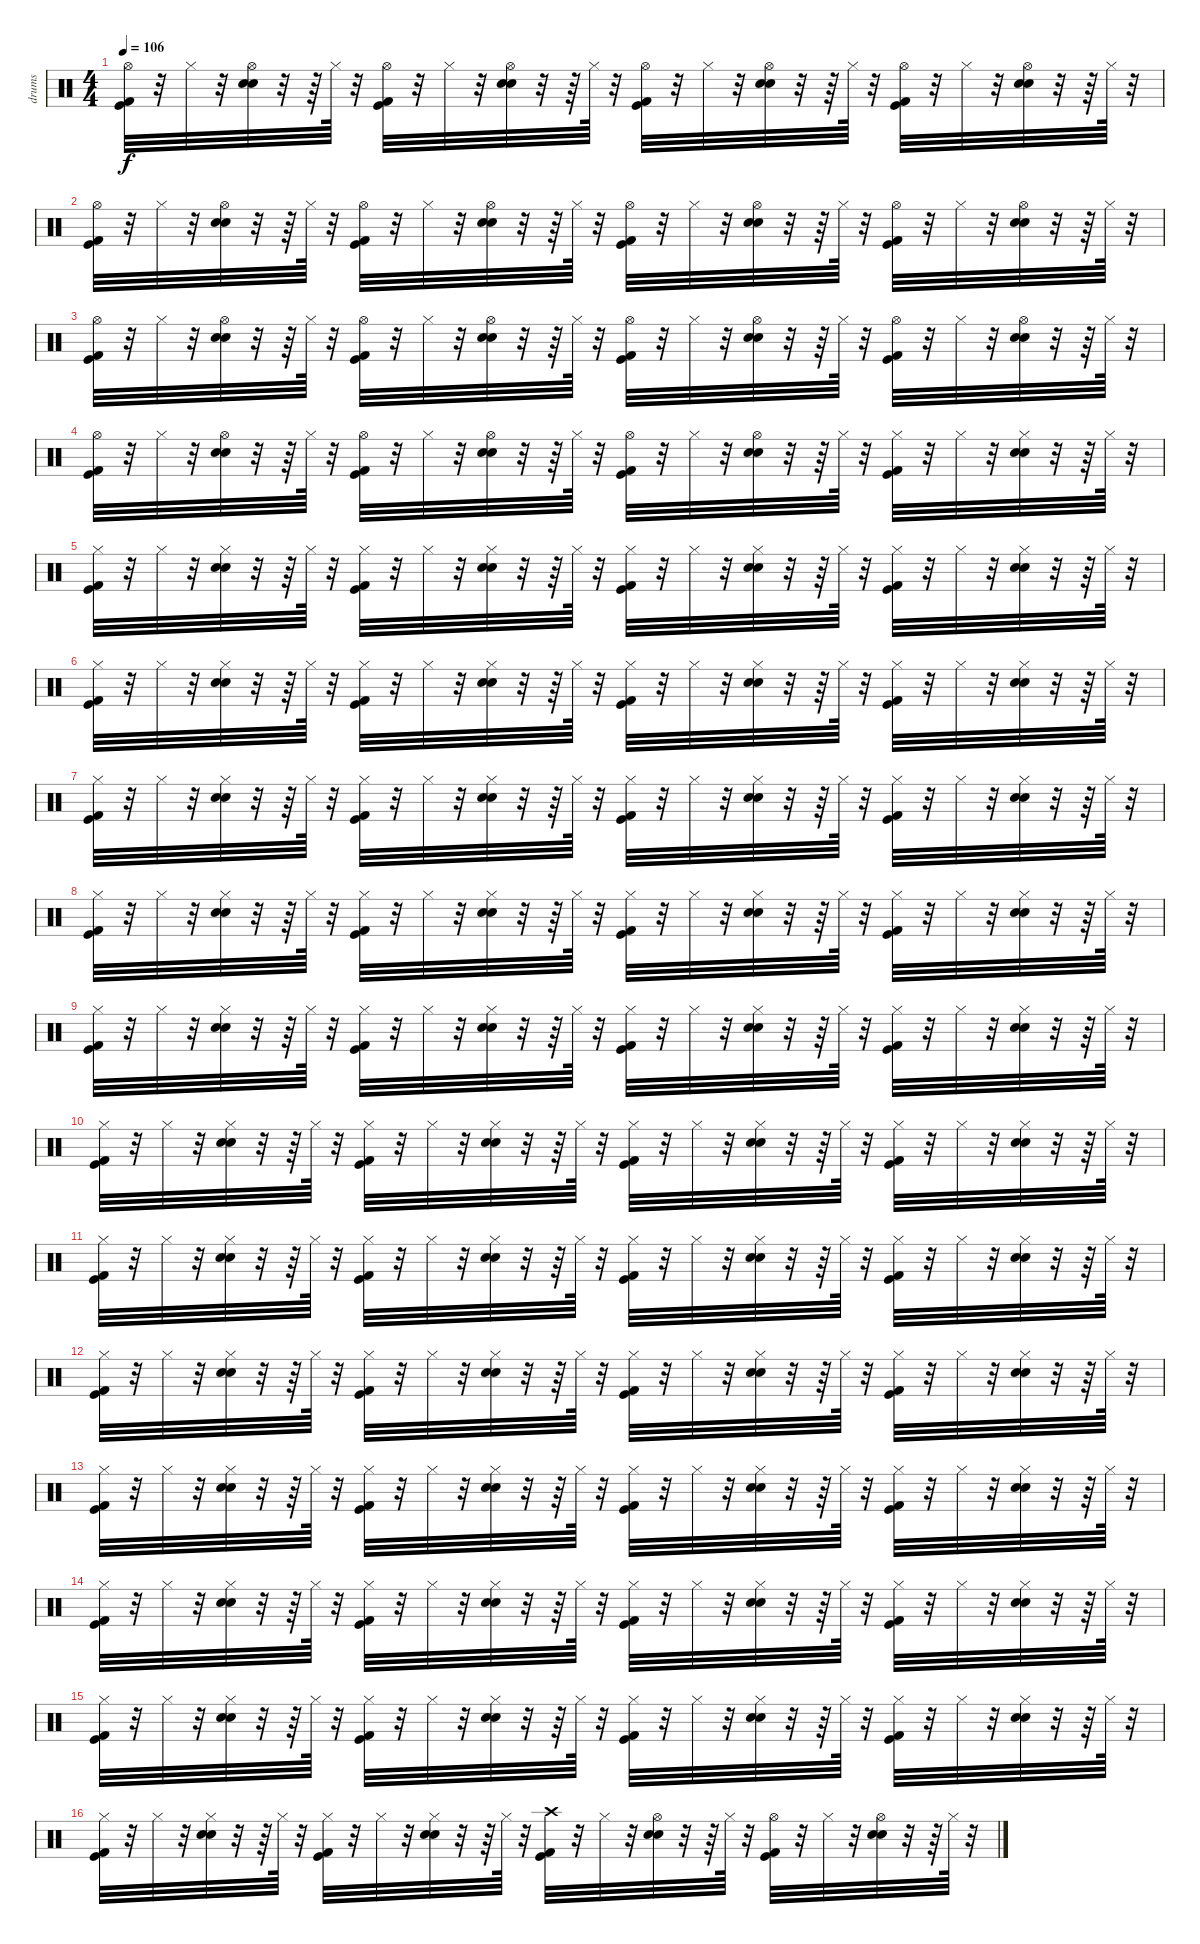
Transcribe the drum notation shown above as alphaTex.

\track ("drums" "drums") {instrument percussion}
\staff {score}
\articulation defaults
\ts (4 4)
\tempo 106
\clef neutral
\ks c
("Kick (hit) 2" "Kick (hit)" "Hi-Hat (open)").32{dy f} r.32 "Hi-Hat (closed)".32 r.32 ("Electric Snare (hit)" "Snare (hit) 2" "Hi-Hat (open)").32 r.32 r.64 "Hi-Hat (closed)".64 r.32 ("Kick (hit) 2" "Kick (hit)" "Hi-Hat (open)").32 r.32 "Hi-Hat (closed)".32 r.32 ("Electric Snare (hit)" "Snare (hit) 2" "Hi-Hat (open)").32 r.32 r.64 "Hi-Hat (closed)".64 r.32 ("Kick (hit) 2" "Kick (hit)" "Hi-Hat (open)").32 r.32 "Hi-Hat (closed)".32 r.32 ("Electric Snare (hit)" "Snare (hit) 2" "Hi-Hat (open)").32 r.32 r.64 "Hi-Hat (closed)".64 r.32 ("Hi-Hat (open)" "Kick (hit)" "Kick (hit) 2").32 r.32 "Hi-Hat (closed)".32 r.32 ("Electric Snare (hit)" "Snare (hit) 2" "Hi-Hat (open)").32 r.32 r.64 "Hi-Hat (closed)".64 r.32 |
("Kick (hit) 2" "Kick (hit)" "Hi-Hat (open)").32 r.32 "Hi-Hat (closed)".32 r.32 ("Electric Snare (hit)" "Snare (hit) 2" "Hi-Hat (open)").32 r.32 r.64 "Hi-Hat (closed)".64 r.32 ("Kick (hit) 2" "Kick (hit)" "Hi-Hat (open)").32 r.32 "Hi-Hat (closed)".32 r.32 ("Electric Snare (hit)" "Snare (hit) 2" "Hi-Hat (open)").32 r.32 r.64 "Hi-Hat (closed)".64 r.32 ("Kick (hit) 2" "Kick (hit)" "Hi-Hat (open)").32 r.32 "Hi-Hat (closed)".32 r.32 ("Electric Snare (hit)" "Snare (hit) 2" "Hi-Hat (open)").32 r.32 r.64 "Hi-Hat (closed)".64 r.32 ("Hi-Hat (open)" "Kick (hit)" "Kick (hit) 2").32 r.32 "Hi-Hat (closed)".32 r.32 ("Electric Snare (hit)" "Snare (hit) 2" "Hi-Hat (open)").32 r.32 r.64 "Hi-Hat (closed)".64 r.32 |
("Kick (hit) 2" "Kick (hit)" "Hi-Hat (open)").32 r.32 "Hi-Hat (closed)".32 r.32 ("Electric Snare (hit)" "Snare (hit) 2" "Hi-Hat (open)").32 r.32 r.64 "Hi-Hat (closed)".64 r.32 ("Kick (hit) 2" "Kick (hit)" "Hi-Hat (open)").32 r.32 "Hi-Hat (closed)".32 r.32 ("Electric Snare (hit)" "Snare (hit) 2" "Hi-Hat (open)").32 r.32 r.64 "Hi-Hat (closed)".64 r.32 ("Kick (hit) 2" "Kick (hit)" "Hi-Hat (open)").32 r.32 "Hi-Hat (closed)".32 r.32 ("Electric Snare (hit)" "Snare (hit) 2" "Hi-Hat (open)").32 r.32 r.64 "Hi-Hat (closed)".64 r.32 ("Hi-Hat (open)" "Kick (hit)" "Kick (hit) 2").32 r.32 "Hi-Hat (closed)".32 r.32 ("Electric Snare (hit)" "Snare (hit) 2" "Hi-Hat (open)").32 r.32 r.64 "Hi-Hat (closed)".64 r.32 |
("Kick (hit) 2" "Kick (hit)" "Hi-Hat (open)").32 r.32 "Hi-Hat (closed)".32 r.32 ("Electric Snare (hit)" "Snare (hit) 2" "Hi-Hat (open)").32 r.32 r.64 "Hi-Hat (closed)".64 r.32 ("Kick (hit) 2" "Kick (hit)" "Hi-Hat (open)").32 r.32 "Hi-Hat (closed)".32 r.32 ("Electric Snare (hit)" "Snare (hit) 2" "Hi-Hat (open)").32 r.32 r.64 "Hi-Hat (closed)".64 r.32 ("Kick (hit) 2" "Kick (hit)" "Hi-Hat (open)").32 r.32 "Hi-Hat (closed)".32 r.32 ("Electric Snare (hit)" "Snare (hit) 2" "Hi-Hat (open)").32 r.32 r.64 "Hi-Hat (closed)".64 r.32 ("Kick (hit) 2" "Kick (hit)" "Hi-Hat (closed)").32 r.32 "Hi-Hat (closed)".32 r.32 ("Electric Snare (hit)" "Snare (hit) 2" "Hi-Hat (closed)").32 r.32 r.64 "Hi-Hat (closed)".64 r.32 |
("Kick (hit) 2" "Kick (hit)" "Hi-Hat (closed)").32 r.32 "Hi-Hat (closed)".32 r.32 ("Electric Snare (hit)" "Snare (hit) 2" "Hi-Hat (closed)").32 r.32 r.64 "Hi-Hat (closed)".64 r.32 ("Kick (hit) 2" "Kick (hit)" "Hi-Hat (closed)").32 r.32 "Hi-Hat (closed)".32 r.32 ("Electric Snare (hit)" "Snare (hit) 2" "Hi-Hat (closed)").32 r.32 r.64 "Hi-Hat (closed)".64 r.32 ("Kick (hit) 2" "Kick (hit)" "Hi-Hat (closed)").32 r.32 "Hi-Hat (closed)".32 r.32 ("Electric Snare (hit)" "Snare (hit) 2" "Hi-Hat (closed)").32 r.32 r.64 "Hi-Hat (closed)".64 r.32 ("Kick (hit) 2" "Kick (hit)" "Hi-Hat (closed)").32 r.32 "Hi-Hat (closed)".32 r.32 ("Electric Snare (hit)" "Snare (hit) 2" "Hi-Hat (closed)").32 r.32 r.64 "Hi-Hat (closed)".64 r.32 |
("Kick (hit) 2" "Kick (hit)" "Hi-Hat (closed)").32 r.32 "Hi-Hat (closed)".32 r.32 ("Electric Snare (hit)" "Snare (hit) 2" "Hi-Hat (closed)").32 r.32 r.64 "Hi-Hat (closed)".64 r.32 ("Kick (hit) 2" "Kick (hit)" "Hi-Hat (closed)").32 r.32 "Hi-Hat (closed)".32 r.32 ("Electric Snare (hit)" "Snare (hit) 2" "Hi-Hat (closed)").32 r.32 r.64 "Hi-Hat (closed)".64 r.32 ("Kick (hit) 2" "Kick (hit)" "Hi-Hat (closed)").32 r.32 "Hi-Hat (closed)".32 r.32 ("Electric Snare (hit)" "Snare (hit) 2" "Hi-Hat (closed)").32 r.32 r.64 "Hi-Hat (closed)".64 r.32 ("Kick (hit) 2" "Kick (hit)" "Hi-Hat (closed)").32 r.32 "Hi-Hat (closed)".32 r.32 ("Electric Snare (hit)" "Snare (hit) 2" "Hi-Hat (closed)").32 r.32 r.64 "Hi-Hat (closed)".64 r.32 |
("Kick (hit) 2" "Kick (hit)" "Hi-Hat (closed)").32 r.32 "Hi-Hat (closed)".32 r.32 ("Electric Snare (hit)" "Snare (hit) 2" "Hi-Hat (closed)").32 r.32 r.64 "Hi-Hat (closed)".64 r.32 ("Kick (hit) 2" "Kick (hit)" "Hi-Hat (closed)").32 r.32 "Hi-Hat (closed)".32 r.32 ("Electric Snare (hit)" "Snare (hit) 2" "Hi-Hat (closed)").32 r.32 r.64 "Hi-Hat (closed)".64 r.32 ("Kick (hit) 2" "Kick (hit)" "Hi-Hat (closed)").32 r.32 "Hi-Hat (closed)".32 r.32 ("Electric Snare (hit)" "Snare (hit) 2" "Hi-Hat (closed)").32 r.32 r.64 "Hi-Hat (closed)".64 r.32 ("Kick (hit) 2" "Kick (hit)" "Hi-Hat (closed)").32 r.32 "Hi-Hat (closed)".32 r.32 ("Electric Snare (hit)" "Snare (hit) 2" "Hi-Hat (closed)").32 r.32 r.64 "Hi-Hat (closed)".64 r.32 |
("Kick (hit) 2" "Kick (hit)" "Hi-Hat (closed)").32 r.32 "Hi-Hat (closed)".32 r.32 ("Electric Snare (hit)" "Snare (hit) 2" "Hi-Hat (closed)").32 r.32 r.64 "Hi-Hat (closed)".64 r.32 ("Kick (hit) 2" "Kick (hit)" "Hi-Hat (closed)").32 r.32 "Hi-Hat (closed)".32 r.32 ("Electric Snare (hit)" "Snare (hit) 2" "Hi-Hat (closed)").32 r.32 r.64 "Hi-Hat (closed)".64 r.32 ("Kick (hit) 2" "Kick (hit)" "Hi-Hat (closed)").32 r.32 "Hi-Hat (closed)".32 r.32 ("Electric Snare (hit)" "Snare (hit) 2" "Hi-Hat (closed)").32 r.32 r.64 "Hi-Hat (closed)".64 r.32 ("Kick (hit) 2" "Kick (hit)" "Hi-Hat (closed)").32 r.32 "Hi-Hat (closed)".32 r.32 ("Electric Snare (hit)" "Snare (hit) 2" "Hi-Hat (closed)").32 r.32 r.64 "Hi-Hat (closed)".64 r.32 |
("Kick (hit) 2" "Kick (hit)" "Hi-Hat (closed)").32 r.32 "Hi-Hat (closed)".32 r.32 ("Electric Snare (hit)" "Snare (hit) 2" "Hi-Hat (closed)").32 r.32 r.64 "Hi-Hat (closed)".64 r.32 ("Kick (hit) 2" "Kick (hit)" "Hi-Hat (closed)").32 r.32 "Hi-Hat (closed)".32 r.32 ("Electric Snare (hit)" "Snare (hit) 2" "Hi-Hat (closed)").32 r.32 r.64 "Hi-Hat (closed)".64 r.32 ("Kick (hit) 2" "Kick (hit)" "Hi-Hat (closed)").32 r.32 "Hi-Hat (closed)".32 r.32 ("Electric Snare (hit)" "Snare (hit) 2" "Hi-Hat (closed)").32 r.32 r.64 "Hi-Hat (closed)".64 r.32 ("Kick (hit) 2" "Kick (hit)" "Hi-Hat (closed)").32 r.32 "Hi-Hat (closed)".32 r.32 ("Electric Snare (hit)" "Snare (hit) 2" "Hi-Hat (closed)").32 r.32 r.64 "Hi-Hat (closed)".64 r.32 |
("Kick (hit) 2" "Kick (hit)" "Hi-Hat (closed)").32 r.32 "Hi-Hat (closed)".32 r.32 ("Electric Snare (hit)" "Snare (hit) 2" "Hi-Hat (closed)").32 r.32 r.64 "Hi-Hat (closed)".64 r.32 ("Kick (hit) 2" "Kick (hit)" "Hi-Hat (closed)").32 r.32 "Hi-Hat (closed)".32 r.32 ("Electric Snare (hit)" "Snare (hit) 2" "Hi-Hat (closed)").32 r.32 r.64 "Hi-Hat (closed)".64 r.32 ("Kick (hit) 2" "Kick (hit)" "Hi-Hat (closed)").32 r.32 "Hi-Hat (closed)".32 r.32 ("Electric Snare (hit)" "Snare (hit) 2" "Hi-Hat (closed)").32 r.32 r.64 "Hi-Hat (closed)".64 r.32 ("Kick (hit) 2" "Kick (hit)" "Hi-Hat (closed)").32 r.32 "Hi-Hat (closed)".32 r.32 ("Electric Snare (hit)" "Snare (hit) 2" "Hi-Hat (closed)").32 r.32 r.64 "Hi-Hat (closed)".64 r.32 |
("Kick (hit) 2" "Kick (hit)" "Hi-Hat (closed)").32 r.32 "Hi-Hat (closed)".32 r.32 ("Electric Snare (hit)" "Snare (hit) 2" "Hi-Hat (closed)").32 r.32 r.64 "Hi-Hat (closed)".64 r.32 ("Kick (hit) 2" "Kick (hit)" "Hi-Hat (closed)").32 r.32 "Hi-Hat (closed)".32 r.32 ("Electric Snare (hit)" "Snare (hit) 2" "Hi-Hat (closed)").32 r.32 r.64 "Hi-Hat (closed)".64 r.32 ("Kick (hit) 2" "Kick (hit)" "Hi-Hat (closed)").32 r.32 "Hi-Hat (closed)".32 r.32 ("Electric Snare (hit)" "Snare (hit) 2" "Hi-Hat (closed)").32 r.32 r.64 "Hi-Hat (closed)".64 r.32 ("Kick (hit) 2" "Kick (hit)" "Hi-Hat (closed)").32 r.32 "Hi-Hat (closed)".32 r.32 ("Electric Snare (hit)" "Snare (hit) 2" "Hi-Hat (closed)").32 r.32 r.64 "Hi-Hat (closed)".64 r.32 |
("Kick (hit) 2" "Kick (hit)" "Hi-Hat (closed)").32 r.32 "Hi-Hat (closed)".32 r.32 ("Electric Snare (hit)" "Snare (hit) 2" "Hi-Hat (closed)").32 r.32 r.64 "Hi-Hat (closed)".64 r.32 ("Kick (hit) 2" "Kick (hit)" "Hi-Hat (closed)").32 r.32 "Hi-Hat (closed)".32 r.32 ("Electric Snare (hit)" "Snare (hit) 2" "Hi-Hat (closed)").32 r.32 r.64 "Hi-Hat (closed)".64 r.32 ("Kick (hit) 2" "Kick (hit)" "Hi-Hat (closed)").32 r.32 "Hi-Hat (closed)".32 r.32 ("Electric Snare (hit)" "Snare (hit) 2" "Hi-Hat (closed)").32 r.32 r.64 "Hi-Hat (closed)".64 r.32 ("Kick (hit) 2" "Kick (hit)" "Hi-Hat (closed)").32 r.32 "Hi-Hat (closed)".32 r.32 ("Electric Snare (hit)" "Snare (hit) 2" "Hi-Hat (closed)").32 r.32 r.64 "Hi-Hat (closed)".64 r.32 |
("Kick (hit) 2" "Kick (hit)" "Hi-Hat (closed)").32 r.32 "Hi-Hat (closed)".32 r.32 ("Electric Snare (hit)" "Snare (hit) 2" "Hi-Hat (closed)").32 r.32 r.64 "Hi-Hat (closed)".64 r.32 ("Kick (hit) 2" "Kick (hit)" "Hi-Hat (closed)").32 r.32 "Hi-Hat (closed)".32 r.32 ("Electric Snare (hit)" "Snare (hit) 2" "Hi-Hat (closed)").32 r.32 r.64 "Hi-Hat (closed)".64 r.32 ("Kick (hit) 2" "Kick (hit)" "Hi-Hat (closed)").32 r.32 "Hi-Hat (closed)".32 r.32 ("Electric Snare (hit)" "Snare (hit) 2" "Hi-Hat (closed)").32 r.32 r.64 "Hi-Hat (closed)".64 r.32 ("Kick (hit) 2" "Kick (hit)" "Hi-Hat (closed)").32 r.32 "Hi-Hat (closed)".32 r.32 ("Electric Snare (hit)" "Snare (hit) 2" "Hi-Hat (closed)").32 r.32 r.64 "Hi-Hat (closed)".64 r.32 |
("Kick (hit) 2" "Kick (hit)" "Hi-Hat (closed)").32 r.32 "Hi-Hat (closed)".32 r.32 ("Electric Snare (hit)" "Snare (hit) 2" "Hi-Hat (closed)").32 r.32 r.64 "Hi-Hat (closed)".64 r.32 ("Kick (hit) 2" "Kick (hit)" "Hi-Hat (closed)").32 r.32 "Hi-Hat (closed)".32 r.32 ("Electric Snare (hit)" "Snare (hit) 2" "Hi-Hat (closed)").32 r.32 r.64 "Hi-Hat (closed)".64 r.32 ("Kick (hit) 2" "Kick (hit)" "Hi-Hat (closed)").32 r.32 "Hi-Hat (closed)".32 r.32 ("Electric Snare (hit)" "Snare (hit) 2" "Hi-Hat (closed)").32 r.32 r.64 "Hi-Hat (closed)".64 r.32 ("Kick (hit) 2" "Kick (hit)" "Hi-Hat (closed)").32 r.32 "Hi-Hat (closed)".32 r.32 ("Electric Snare (hit)" "Snare (hit) 2" "Hi-Hat (closed)").32 r.32 r.64 "Hi-Hat (closed)".64 r.32 |
("Kick (hit) 2" "Kick (hit)" "Hi-Hat (closed)").32 r.32 "Hi-Hat (closed)".32 r.32 ("Electric Snare (hit)" "Snare (hit) 2" "Hi-Hat (closed)").32 r.32 r.64 "Hi-Hat (closed)".64 r.32 ("Kick (hit) 2" "Kick (hit)" "Hi-Hat (closed)").32 r.32 "Hi-Hat (closed)".32 r.32 ("Electric Snare (hit)" "Snare (hit) 2" "Hi-Hat (closed)").32 r.32 r.64 "Hi-Hat (closed)".64 r.32 ("Kick (hit) 2" "Kick (hit)" "Hi-Hat (closed)").32 r.32 "Hi-Hat (closed)".32 r.32 ("Electric Snare (hit)" "Snare (hit) 2" "Hi-Hat (closed)").32 r.32 r.64 "Hi-Hat (closed)".64 r.32 ("Kick (hit) 2" "Kick (hit)" "Hi-Hat (closed)").32 r.32 "Hi-Hat (closed)".32 r.32 ("Electric Snare (hit)" "Snare (hit) 2" "Hi-Hat (closed)").32 r.32 r.64 "Hi-Hat (closed)".64 r.32 |
("Kick (hit) 2" "Kick (hit)" "Hi-Hat (closed)").32 r.32 "Hi-Hat (closed)".32 r.32 ("Electric Snare (hit)" "Snare (hit) 2" "Hi-Hat (closed)").32 r.32 r.64 "Hi-Hat (closed)".64 r.32 ("Kick (hit) 2" "Kick (hit)" "Hi-Hat (closed)").32 r.32 "Hi-Hat (closed)".32 r.32 ("Electric Snare (hit)" "Snare (hit) 2" "Hi-Hat (closed)").32 r.32 r.64 "Hi-Hat (closed)".64 r.32 ("Kick (hit) 2" "Kick (hit)" "Crash high (hit)").32 r.32 "Hi-Hat (closed)".32 r.32 ("Electric Snare (hit)" "Snare (hit) 2" "Hi-Hat (open)").32 r.32 r.64 "Hi-Hat (closed)".64 r.32 ("Kick (hit) 2" "Kick (hit)" "Hi-Hat (open)").32 r.32 "Hi-Hat (closed)".32 r.32 ("Electric Snare (hit)" "Snare (hit) 2" "Hi-Hat (open)").32 r.32 r.64 "Hi-Hat (closed)".64 r.32
